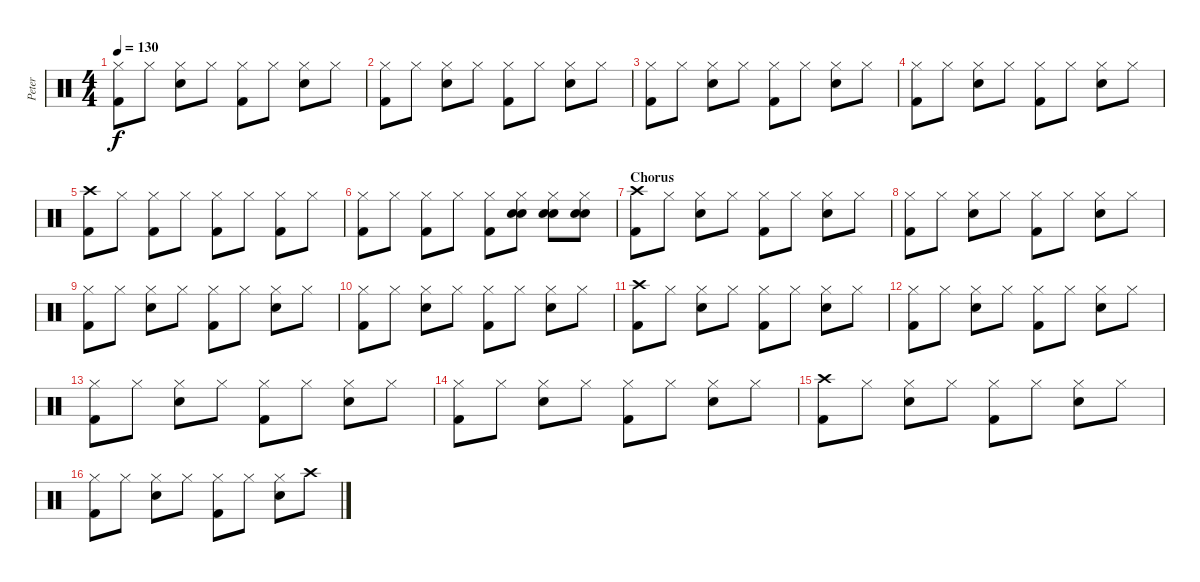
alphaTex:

\track ("Peter" "Peter") {instrument percussion}
\staff {score}
\articulation defaults
\ts (4 4)
\tempo 130
\clef neutral
\ks c
("Hi-Hat (closed)" "Kick (hit) 2").8{dy f} "Hi-Hat (closed)".8 ("Hi-Hat (closed)" "Electric Snare (hit)").8 "Hi-Hat (closed)".8 ("Hi-Hat (closed)" "Kick (hit) 2").8 "Hi-Hat (closed)".8 ("Hi-Hat (closed)" "Electric Snare (hit)").8 "Hi-Hat (closed)".8 |
("Hi-Hat (closed)" "Kick (hit) 2").8 "Hi-Hat (closed)".8 ("Hi-Hat (closed)" "Electric Snare (hit)").8 "Hi-Hat (closed)".8 ("Hi-Hat (closed)" "Kick (hit) 2").8 "Hi-Hat (closed)".8 ("Hi-Hat (closed)" "Electric Snare (hit)").8 "Hi-Hat (closed)".8 |
("Hi-Hat (closed)" "Kick (hit) 2").8 "Hi-Hat (closed)".8 ("Hi-Hat (closed)" "Electric Snare (hit)").8 "Hi-Hat (closed)".8 ("Hi-Hat (closed)" "Kick (hit) 2").8 "Hi-Hat (closed)".8 ("Hi-Hat (closed)" "Electric Snare (hit)").8 "Hi-Hat (closed)".8 |
("Hi-Hat (closed)" "Kick (hit) 2").8 "Hi-Hat (closed)".8 ("Hi-Hat (closed)" "Electric Snare (hit)").8 "Hi-Hat (closed)".8 ("Hi-Hat (closed)" "Kick (hit) 2").8 "Hi-Hat (closed)".8 ("Hi-Hat (closed)" "Electric Snare (hit)").8 "Hi-Hat (closed)".8 |
("Crash high (hit)" "Kick (hit) 2").8 "Hi-Hat (closed)".8 ("Hi-Hat (closed)" "Kick (hit) 2").8 "Hi-Hat (closed)".8 ("Hi-Hat (closed)" "Kick (hit) 2").8 "Hi-Hat (closed)".8 ("Hi-Hat (closed)" "Kick (hit) 2").8 "Hi-Hat (closed)".8 |
("Hi-Hat (closed)" "Kick (hit) 2").8 "Hi-Hat (closed)".8 ("Hi-Hat (closed)" "Kick (hit) 2").8 "Hi-Hat (closed)".8 ("Hi-Hat (closed)" "Kick (hit) 2").8 ("Hi-Hat (closed)" "Electric Snare (hit)" "Electric Snare (hit)").8 ("Hi-Hat (closed)" "Electric Snare (hit)" "Electric Snare (hit)").8 ("Hi-Hat (closed)" "Electric Snare (hit)" "Electric Snare (hit)").8 |
\section ("" "Chorus")
("Crash high (hit)" "Kick (hit) 2").8 "Hi-Hat (closed)".8 ("Hi-Hat (closed)" "Snare (hit) 2").8 "Hi-Hat (closed)".8 ("Hi-Hat (closed)" "Kick (hit) 2").8 "Hi-Hat (closed)".8 ("Hi-Hat (closed)" "Snare (hit) 2").8 "Hi-Hat (closed)".8 |
("Hi-Hat (closed)" "Kick (hit) 2").8 "Hi-Hat (closed)".8 ("Hi-Hat (closed)" "Snare (hit) 2").8 "Hi-Hat (closed)".8 ("Hi-Hat (closed)" "Kick (hit) 2").8 "Hi-Hat (closed)".8 ("Hi-Hat (closed)" "Snare (hit) 2").8 "Hi-Hat (closed)".8 |
("Hi-Hat (closed)" "Kick (hit) 2").8 "Hi-Hat (closed)".8 ("Hi-Hat (closed)" "Snare (hit) 2").8 "Hi-Hat (closed)".8 ("Hi-Hat (closed)" "Kick (hit) 2").8 "Hi-Hat (closed)".8 ("Hi-Hat (closed)" "Snare (hit) 2").8 "Hi-Hat (closed)".8 |
("Hi-Hat (closed)" "Kick (hit) 2").8 "Hi-Hat (closed)".8 ("Hi-Hat (closed)" "Snare (hit) 2").8 "Hi-Hat (closed)".8 ("Hi-Hat (closed)" "Kick (hit) 2").8 "Hi-Hat (closed)".8 ("Hi-Hat (closed)" "Snare (hit) 2").8 "Hi-Hat (closed)".8 |
("Crash high (hit)" "Kick (hit) 2").8 "Hi-Hat (closed)".8 ("Hi-Hat (closed)" "Snare (hit) 2").8 "Hi-Hat (closed)".8 ("Hi-Hat (closed)" "Kick (hit) 2").8 "Hi-Hat (closed)".8 ("Hi-Hat (closed)" "Snare (hit) 2").8 "Hi-Hat (closed)".8 |
("Hi-Hat (closed)" "Kick (hit) 2").8 "Hi-Hat (closed)".8 ("Hi-Hat (closed)" "Snare (hit) 2").8 "Hi-Hat (closed)".8 ("Hi-Hat (closed)" "Kick (hit) 2").8 "Hi-Hat (closed)".8 ("Hi-Hat (closed)" "Snare (hit) 2").8 "Hi-Hat (closed)".8 |
("Hi-Hat (closed)" "Kick (hit) 2").8 "Hi-Hat (closed)".8 ("Hi-Hat (closed)" "Snare (hit) 2").8 "Hi-Hat (closed)".8 ("Hi-Hat (closed)" "Kick (hit) 2").8 "Hi-Hat (closed)".8 ("Hi-Hat (closed)" "Snare (hit) 2").8 "Hi-Hat (closed)".8 |
("Hi-Hat (closed)" "Kick (hit) 2").8 "Hi-Hat (closed)".8 ("Hi-Hat (closed)" "Snare (hit) 2").8 "Hi-Hat (closed)".8 ("Hi-Hat (closed)" "Kick (hit) 2").8 "Hi-Hat (closed)".8 ("Hi-Hat (closed)" "Snare (hit) 2").8 "Hi-Hat (closed)".8 |
("Crash high (hit)" "Kick (hit) 2").8 "Hi-Hat (closed)".8 ("Hi-Hat (closed)" "Snare (hit) 2").8 "Hi-Hat (closed)".8 ("Hi-Hat (closed)" "Kick (hit) 2").8 "Hi-Hat (closed)".8 ("Hi-Hat (closed)" "Snare (hit) 2").8 "Hi-Hat (closed)".8 |
("Hi-Hat (closed)" "Kick (hit) 2").8 "Hi-Hat (closed)".8 ("Hi-Hat (closed)" "Snare (hit) 2").8 "Hi-Hat (closed)".8 ("Hi-Hat (closed)" "Kick (hit) 2").8 "Hi-Hat (closed)".8 ("Hi-Hat (closed)" "Snare (hit) 2").8 "Crash high (hit)".8
